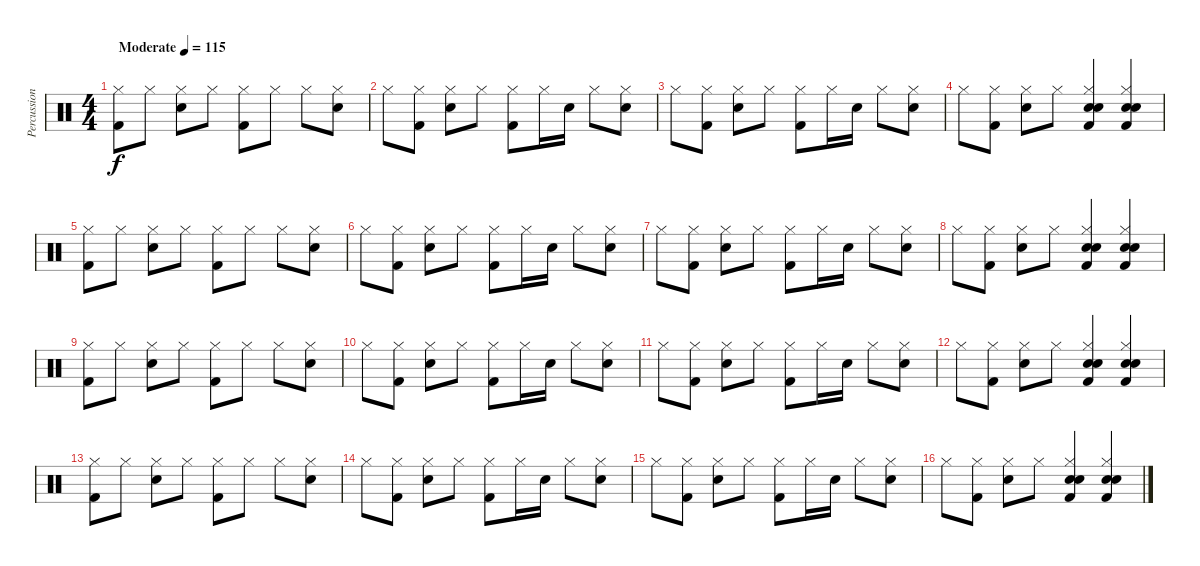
\track ("Percussion" "Percussion") {instrument percussion}
\staff {score}
\articulation defaults
\ts (4 4)
\tempo (115 "Moderate")
\clef neutral
\ks c
("Kick (hit) 2" "Hi-Hat (closed)").8{dy f} "Hi-Hat (closed)".8 ("Electric Snare (hit)" "Hi-Hat (closed)").8 "Hi-Hat (closed)".8 ("Kick (hit) 2" "Hi-Hat (closed)").8 "Hi-Hat (closed)".8 "Hi-Hat (closed)".8 ("Electric Snare (hit)" "Hi-Hat (closed)").8 |
"Hi-Hat (closed)".8 ("Kick (hit) 2" "Hi-Hat (closed)").8 ("Electric Snare (hit)" "Hi-Hat (closed)").8 "Hi-Hat (closed)".8 ("Kick (hit) 2" "Hi-Hat (closed)").8 "Hi-Hat (closed)".16 "Electric Snare (hit)".16 "Hi-Hat (closed)".8 ("Hi-Hat (closed)" "Electric Snare (hit)").8 |
"Hi-Hat (closed)".8 ("Kick (hit) 2" "Hi-Hat (closed)").8 ("Hi-Hat (closed)" "Electric Snare (hit)").8 "Hi-Hat (closed)".8 ("Kick (hit) 2" "Hi-Hat (closed)").8 "Hi-Hat (closed)".16 "Electric Snare (hit)".16 "Hi-Hat (closed)".8 ("Hi-Hat (closed)" "Electric Snare (hit)").8 |
"Hi-Hat (closed)".8 ("Kick (hit) 2" "Hi-Hat (closed)").8 ("Electric Snare (hit)" "Hi-Hat (closed)").8 "Hi-Hat (closed)".8 ("Hi-Hat (closed)" "Kick (hit) 2" "Electric Snare (hit)" "Electric Snare (hit)").4 ("Hi-Hat (closed)" "Kick (hit) 2" "Electric Snare (hit)" "Electric Snare (hit)").4 |
("Kick (hit) 2" "Hi-Hat (closed)").8 "Hi-Hat (closed)".8 ("Electric Snare (hit)" "Hi-Hat (closed)").8 "Hi-Hat (closed)".8 ("Kick (hit) 2" "Hi-Hat (closed)").8 "Hi-Hat (closed)".8 "Hi-Hat (closed)".8 ("Electric Snare (hit)" "Hi-Hat (closed)").8 |
"Hi-Hat (closed)".8 ("Kick (hit) 2" "Hi-Hat (closed)").8 ("Electric Snare (hit)" "Hi-Hat (closed)").8 "Hi-Hat (closed)".8 ("Kick (hit) 2" "Hi-Hat (closed)").8 "Hi-Hat (closed)".16 "Electric Snare (hit)".16 "Hi-Hat (closed)".8 ("Hi-Hat (closed)" "Electric Snare (hit)").8 |
"Hi-Hat (closed)".8 ("Kick (hit) 2" "Hi-Hat (closed)").8 ("Hi-Hat (closed)" "Electric Snare (hit)").8 "Hi-Hat (closed)".8 ("Kick (hit) 2" "Hi-Hat (closed)").8 "Hi-Hat (closed)".16 "Electric Snare (hit)".16 "Hi-Hat (closed)".8 ("Hi-Hat (closed)" "Electric Snare (hit)").8 |
"Hi-Hat (closed)".8 ("Kick (hit) 2" "Hi-Hat (closed)").8 ("Electric Snare (hit)" "Hi-Hat (closed)").8 "Hi-Hat (closed)".8 ("Hi-Hat (closed)" "Kick (hit) 2" "Electric Snare (hit)" "Electric Snare (hit)").4 ("Hi-Hat (closed)" "Kick (hit) 2" "Electric Snare (hit)" "Electric Snare (hit)").4 |
("Kick (hit) 2" "Hi-Hat (closed)").8 "Hi-Hat (closed)".8 ("Electric Snare (hit)" "Hi-Hat (closed)").8 "Hi-Hat (closed)".8 ("Kick (hit) 2" "Hi-Hat (closed)").8 "Hi-Hat (closed)".8 "Hi-Hat (closed)".8 ("Electric Snare (hit)" "Hi-Hat (closed)").8 |
"Hi-Hat (closed)".8 ("Kick (hit) 2" "Hi-Hat (closed)").8 ("Electric Snare (hit)" "Hi-Hat (closed)").8 "Hi-Hat (closed)".8 ("Kick (hit) 2" "Hi-Hat (closed)").8 "Hi-Hat (closed)".16 "Electric Snare (hit)".16 "Hi-Hat (closed)".8 ("Hi-Hat (closed)" "Electric Snare (hit)").8 |
"Hi-Hat (closed)".8 ("Kick (hit) 2" "Hi-Hat (closed)").8 ("Hi-Hat (closed)" "Electric Snare (hit)").8 "Hi-Hat (closed)".8 ("Kick (hit) 2" "Hi-Hat (closed)").8 "Hi-Hat (closed)".16 "Electric Snare (hit)".16 "Hi-Hat (closed)".8 ("Hi-Hat (closed)" "Electric Snare (hit)").8 |
"Hi-Hat (closed)".8 ("Kick (hit) 2" "Hi-Hat (closed)").8 ("Electric Snare (hit)" "Hi-Hat (closed)").8 "Hi-Hat (closed)".8 ("Hi-Hat (closed)" "Kick (hit) 2" "Electric Snare (hit)" "Electric Snare (hit)").4 ("Hi-Hat (closed)" "Kick (hit) 2" "Electric Snare (hit)" "Electric Snare (hit)").4 |
("Kick (hit) 2" "Hi-Hat (closed)").8 "Hi-Hat (closed)".8 ("Electric Snare (hit)" "Hi-Hat (closed)").8 "Hi-Hat (closed)".8 ("Kick (hit) 2" "Hi-Hat (closed)").8 "Hi-Hat (closed)".8 "Hi-Hat (closed)".8 ("Electric Snare (hit)" "Hi-Hat (closed)").8 |
"Hi-Hat (closed)".8 ("Kick (hit) 2" "Hi-Hat (closed)").8 ("Electric Snare (hit)" "Hi-Hat (closed)").8 "Hi-Hat (closed)".8 ("Kick (hit) 2" "Hi-Hat (closed)").8 "Hi-Hat (closed)".16 "Electric Snare (hit)".16 "Hi-Hat (closed)".8 ("Hi-Hat (closed)" "Electric Snare (hit)").8 |
"Hi-Hat (closed)".8 ("Kick (hit) 2" "Hi-Hat (closed)").8 ("Hi-Hat (closed)" "Electric Snare (hit)").8 "Hi-Hat (closed)".8 ("Kick (hit) 2" "Hi-Hat (closed)").8 "Hi-Hat (closed)".16 "Electric Snare (hit)".16 "Hi-Hat (closed)".8 ("Hi-Hat (closed)" "Electric Snare (hit)").8 |
"Hi-Hat (closed)".8 ("Kick (hit) 2" "Hi-Hat (closed)").8 ("Electric Snare (hit)" "Hi-Hat (closed)").8 "Hi-Hat (closed)".8 ("Hi-Hat (closed)" "Kick (hit) 2" "Electric Snare (hit)" "Electric Snare (hit)").4 ("Hi-Hat (closed)" "Kick (hit) 2" "Electric Snare (hit)" "Electric Snare (hit)").4
